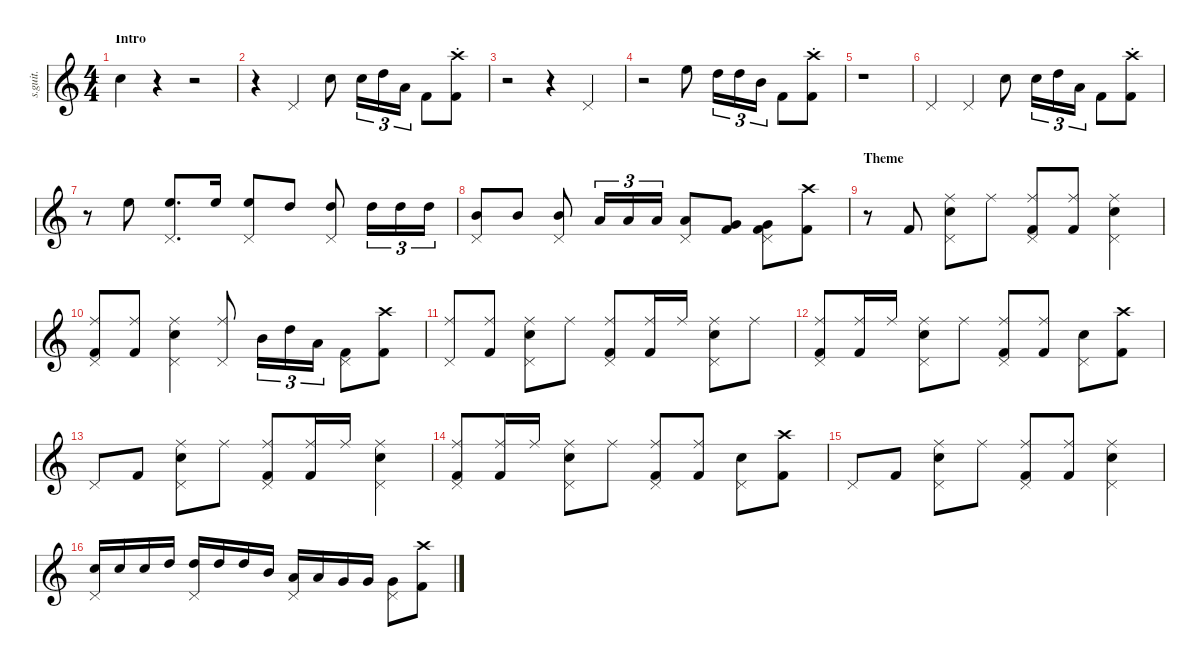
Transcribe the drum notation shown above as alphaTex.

\defaultSystemsLayout 4
\hideDynamics
\bracketExtendMode nobrackets
\track ("Nicko McBrain" "s.guit.") {instrument percussion}
\staff {score}
\articulation defaults
\ts (4 4)
\beaming (8 2 2 2 2)
\section ("" "Intro")
\tempo (162 hide)
\clef g2
\ks c "Snare (hit) 2".4{dy f}
r.4 r.2 |
r.4 "Pedal Hi-Hat (hit)".4{dy mf} "Snare (hit) 2".8{dy f} "Snare (hit) 2".16{tu (3 2)} "High Tom (hit)".16{tu (3 2)} "Low Tom (hit)".16{tu (3 2)} "Kick (hit) 2".8 ("Kick (hit) 2" "Crash high (choke)").8 |
r.2 r.4 "Pedal Hi-Hat (hit)".4 |
r.2 "High Floor Tom (hit)".8 "High Tom (hit)".16{tu (3 2)} "High Tom (hit)".16{tu (3 2)} "Mid Tom (hit)".16{tu (3 2)} "Kick (hit) 2".8 ("Kick (hit) 2" "Crash high (choke)").8 |
r.1 |
"Pedal Hi-Hat (hit)".4 "Pedal Hi-Hat (hit)".4 "Snare (hit) 2".8 "Snare (hit) 2".16{tu (3 2)} "High Tom (hit)".16{tu (3 2)} "Low Tom (hit)".16{tu (3 2)} "Kick (hit) 2".8 ("Kick (hit) 2" "Crash high (choke)").8 |
r.8 "High Floor Tom (hit)".8{dy mf} ("High Floor Tom (hit)" "Pedal Hi-Hat (hit)").8{d} "High Floor Tom (hit)".16 ("High Floor Tom (hit)" "Pedal Hi-Hat (hit)").8 "High Tom (hit)".8 ("Pedal Hi-Hat (hit)" "High Tom (hit)").8 "High Tom (hit)".16{tu (3 2)} "High Tom (hit)".16{tu (3 2)} "High Tom (hit)".16{tu (3 2)} |
("Pedal Hi-Hat (hit)" "Mid Tom (hit)").8 "Mid Tom (hit)".8 ("Mid Tom (hit)" "Pedal Hi-Hat (hit)").8 "Low Tom (hit)".16{tu (3 2)} "Low Tom (hit)".16{tu (3 2)} "Low Tom (hit)".16{tu (3 2)} ("Pedal Hi-Hat (hit)" "Low Tom (hit)").8 ("Very Low Tom (hit)" "Kick (hit) 2").8 ("Very Low Tom (hit)" "Kick (hit) 2" "Pedal Hi-Hat (hit)").8 ("Crash high (hit)" "Kick (hit) 2").8 |
\section ("" "Theme")
r.8 "Kick (hit) 2".8 ("Snare (hit) 2" "Ride (middle)" "Pedal Hi-Hat (hit)").8 "Ride (middle)".8 ("Ride (middle)" "Kick (hit) 2" "Pedal Hi-Hat (hit)").8 ("Ride (middle)" "Kick (hit) 2").8 ("Ride (middle)" "Snare (hit) 2" "Pedal Hi-Hat (hit)").4 |
("Ride (middle)" "Kick (hit) 2" "Pedal Hi-Hat (hit)").8 ("Ride (middle)" "Kick (hit) 2").8 ("Ride (middle)" "Snare (hit) 2" "Pedal Hi-Hat (hit)").4 ("Pedal Hi-Hat (hit)" "Ride (middle)").8 "Mid Tom (hit)".16{tu (3 2)} "High Tom (hit)".16{tu (3 2)} "Low Tom (hit)".16{tu (3 2)} ("Pedal Hi-Hat (hit)" "Kick (hit) 2").8 ("Kick (hit) 2" "Crash high (hit)").8 |
("Ride (middle)" "Pedal Hi-Hat (hit)").8 ("Kick (hit) 2" "Ride (middle)").8 ("Snare (hit) 2" "Ride (middle)" "Pedal Hi-Hat (hit)").8 "Ride (middle)".8 ("Ride (middle)" "Kick (hit) 2" "Pedal Hi-Hat (hit)").8 ("Ride (middle)" "Kick (hit) 2").16 "Ride (middle)".16 ("Ride (middle)" "Snare (hit) 2" "Pedal Hi-Hat (hit)").8 "Ride (middle)".8 |
("Ride (middle)" "Kick (hit) 2" "Pedal Hi-Hat (hit)").8 ("Ride (middle)" "Kick (hit) 2").16 "Ride (middle)".16 ("Ride (middle)" "Snare (hit) 2" "Pedal Hi-Hat (hit)").8 "Ride (middle)".8 ("Pedal Hi-Hat (hit)" "Kick (hit) 2" "Ride (middle)").8 ("Kick (hit) 2" "Ride (middle)").8 ("Snare (hit) 2" "Pedal Hi-Hat (hit)").8 ("Crash high (hit)" "Kick (hit) 2").8 |
"Pedal Hi-Hat (hit)".8 "Kick (hit) 2".8 ("Snare (hit) 2" "Ride (middle)" "Pedal Hi-Hat (hit)").8 "Ride (middle)".8 ("Ride (middle)" "Kick (hit) 2" "Pedal Hi-Hat (hit)").8 ("Ride (middle)" "Kick (hit) 2").16 "Ride (middle)".16 ("Ride (middle)" "Snare (hit) 2" "Pedal Hi-Hat (hit)").4 |
("Ride (middle)" "Kick (hit) 2" "Pedal Hi-Hat (hit)").8 ("Ride (middle)" "Kick (hit) 2").16 "Ride (middle)".16 ("Ride (middle)" "Snare (hit) 2" "Pedal Hi-Hat (hit)").8 "Ride (middle)".8 ("Pedal Hi-Hat (hit)" "Kick (hit) 2" "Ride (middle)").8 ("Kick (hit) 2" "Ride (middle)").8 ("Snare (hit) 2" "Pedal Hi-Hat (hit)").8 ("Crash high (hit)" "Kick (hit) 2").8 |
"Pedal Hi-Hat (hit)".8 "Kick (hit) 2".8 ("Snare (hit) 2" "Ride (middle)" "Pedal Hi-Hat (hit)").8 "Ride (middle)".8 ("Ride (middle)" "Kick (hit) 2" "Pedal Hi-Hat (hit)").8 ("Ride (middle)" "Kick (hit) 2").8 ("Ride (middle)" "Snare (hit) 2" "Pedal Hi-Hat (hit)").4 |
("Snare (hit) 2" "Pedal Hi-Hat (hit)").16 "Snare (hit) 2".16 "Snare (hit) 2".16 "High Tom (hit)".16 ("High Tom (hit)" "Pedal Hi-Hat (hit)").16 "High Tom (hit)".16 "High Tom (hit)".16 "Mid Tom (hit)".16 ("Low Tom (hit)" "Pedal Hi-Hat (hit)").16 "Low Tom (hit)".16 "Very Low Tom (hit)".16 "Very Low Tom (hit)".16 ("Very Low Tom (hit)" "Pedal Hi-Hat (hit)").8 ("Kick (hit) 2" "Crash high (hit)").8
